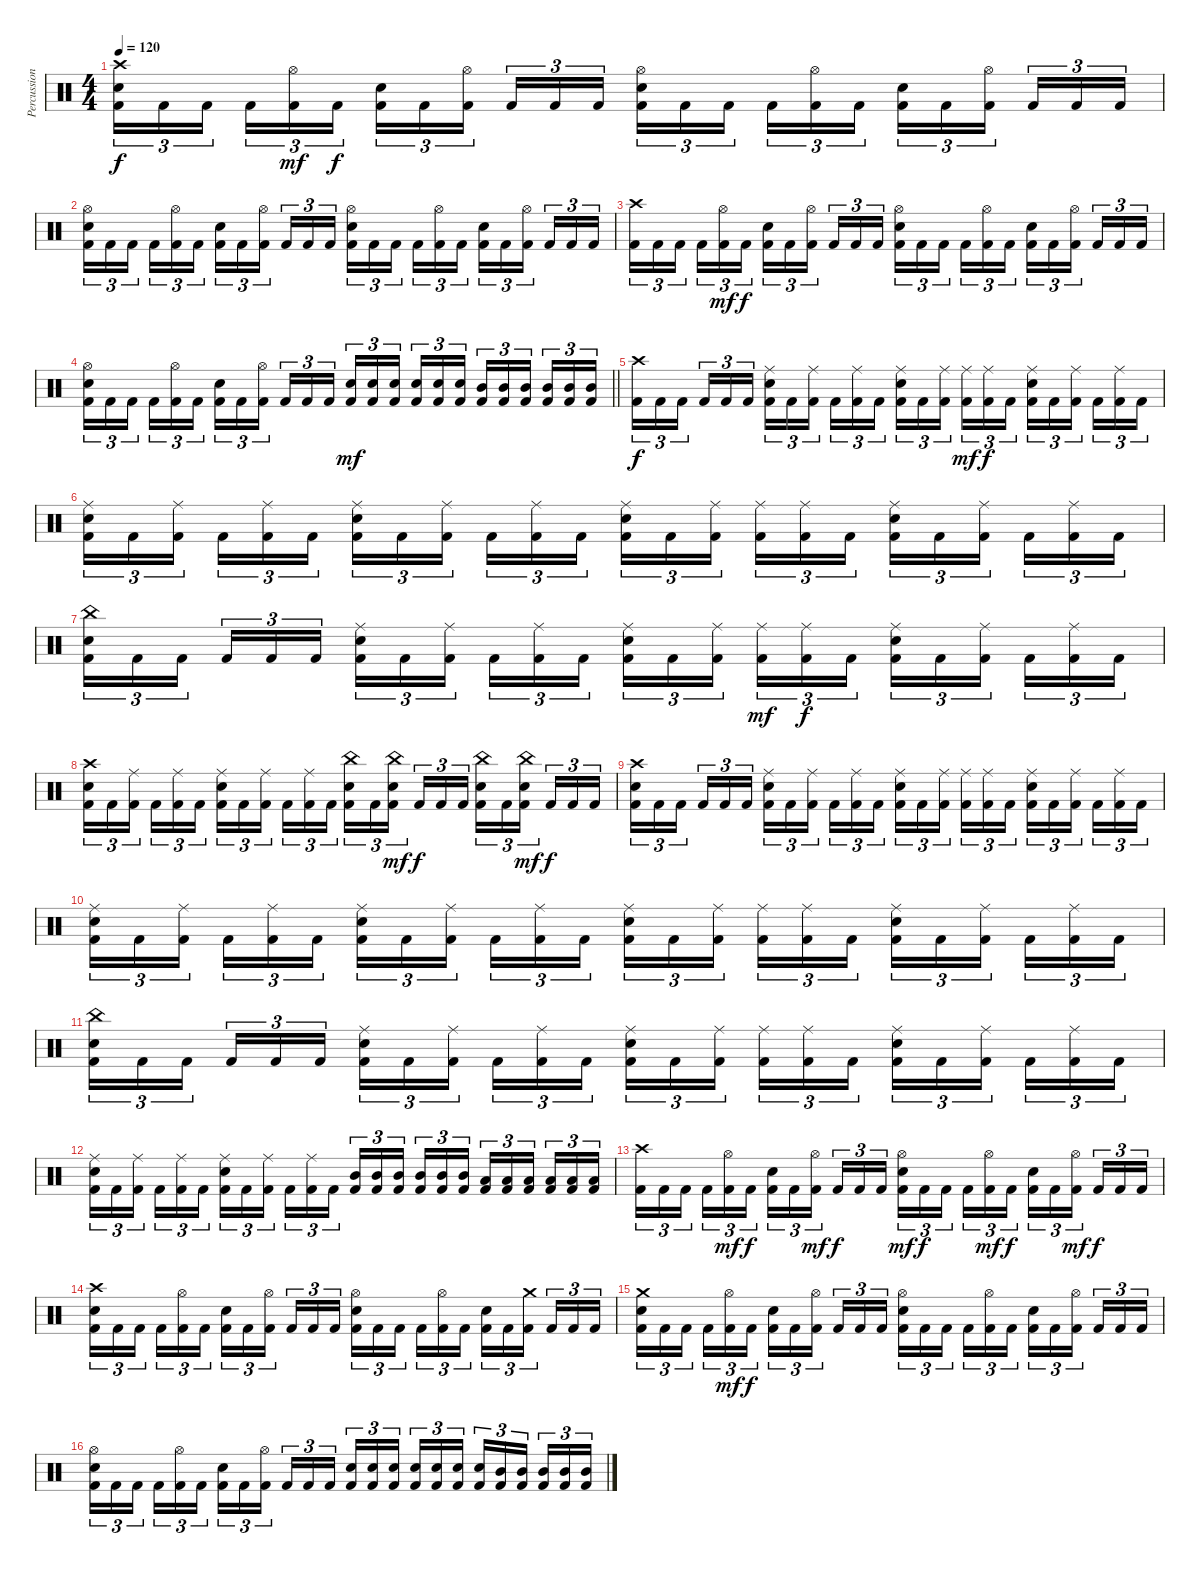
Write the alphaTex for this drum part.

\track ("Percussion" "Percussion") {instrument percussion}
\staff {score}
\articulation defaults
\ts (4 4)
\tempo 120
\clef neutral
\ks c
("Crash high (hit)" "Snare (hit) 2" "Kick (hit) 2").16{tu (3 2) dy f} "Kick (hit) 2".16{tu (3 2)} "Kick (hit) 2".16{tu (3 2) beam splitsecondary} "Kick (hit) 2".16{tu (3 2)} ("Hi-Hat (open)" "Kick (hit) 2").16{tu (3 2) dy mf} "Kick (hit) 2".16{tu (3 2) dy f} ("Snare (hit) 2" "Kick (hit) 2").16{tu (3 2)} "Kick (hit) 2".16{tu (3 2)} ("Hi-Hat (open)" "Kick (hit) 2").16{tu (3 2) beam splitsecondary} "Kick (hit) 2".16{tu (3 2)} "Kick (hit) 2".16{tu (3 2)} "Kick (hit) 2".16{tu (3 2)} ("Hi-Hat (open)" "Snare (hit) 2" "Kick (hit) 2").16{tu (3 2)} "Kick (hit) 2".16{tu (3 2)} "Kick (hit) 2".16{tu (3 2) beam splitsecondary} "Kick (hit) 2".16{tu (3 2)} ("Hi-Hat (open)" "Kick (hit) 2").16{tu (3 2)} "Kick (hit) 2".16{tu (3 2)} ("Snare (hit) 2" "Kick (hit) 2").16{tu (3 2)} "Kick (hit) 2".16{tu (3 2)} ("Hi-Hat (open)" "Kick (hit) 2").16{tu (3 2) beam splitsecondary} "Kick (hit) 2".16{tu (3 2)} "Kick (hit) 2".16{tu (3 2)} "Kick (hit) 2".16{tu (3 2)} |
("Hi-Hat (open)" "Snare (hit) 2" "Kick (hit) 2").16{tu (3 2)} "Kick (hit) 2".16{tu (3 2)} "Kick (hit) 2".16{tu (3 2) beam splitsecondary} "Kick (hit) 2".16{tu (3 2)} ("Hi-Hat (open)" "Kick (hit) 2").16{tu (3 2)} "Kick (hit) 2".16{tu (3 2)} ("Snare (hit) 2" "Kick (hit) 2").16{tu (3 2)} "Kick (hit) 2".16{tu (3 2)} ("Hi-Hat (open)" "Kick (hit) 2").16{tu (3 2) beam splitsecondary} "Kick (hit) 2".16{tu (3 2)} "Kick (hit) 2".16{tu (3 2)} "Kick (hit) 2".16{tu (3 2)} ("Hi-Hat (open)" "Snare (hit) 2" "Kick (hit) 2").16{tu (3 2)} "Kick (hit) 2".16{tu (3 2)} "Kick (hit) 2".16{tu (3 2) beam splitsecondary} "Kick (hit) 2".16{tu (3 2)} ("Hi-Hat (open)" "Kick (hit) 2").16{tu (3 2)} "Kick (hit) 2".16{tu (3 2)} ("Snare (hit) 2" "Kick (hit) 2").16{tu (3 2)} "Kick (hit) 2".16{tu (3 2)} ("Hi-Hat (open)" "Kick (hit) 2").16{tu (3 2) beam splitsecondary} "Kick (hit) 2".16{tu (3 2)} "Kick (hit) 2".16{tu (3 2)} "Kick (hit) 2".16{tu (3 2)} |
("Crash high (hit)" "Kick (hit) 2").16{tu (3 2)} "Kick (hit) 2".16{tu (3 2)} "Kick (hit) 2".16{tu (3 2) beam splitsecondary} "Kick (hit) 2".16{tu (3 2)} ("Hi-Hat (open)" "Kick (hit) 2").16{tu (3 2) dy mf} "Kick (hit) 2".16{tu (3 2) dy f} ("Snare (hit) 2" "Kick (hit) 2").16{tu (3 2)} "Kick (hit) 2".16{tu (3 2)} ("Hi-Hat (open)" "Kick (hit) 2").16{tu (3 2) beam splitsecondary} "Kick (hit) 2".16{tu (3 2)} "Kick (hit) 2".16{tu (3 2)} "Kick (hit) 2".16{tu (3 2)} ("Hi-Hat (open)" "Snare (hit) 2" "Kick (hit) 2").16{tu (3 2)} "Kick (hit) 2".16{tu (3 2)} "Kick (hit) 2".16{tu (3 2) beam splitsecondary} "Kick (hit) 2".16{tu (3 2)} ("Hi-Hat (open)" "Kick (hit) 2").16{tu (3 2)} "Kick (hit) 2".16{tu (3 2)} ("Snare (hit) 2" "Kick (hit) 2").16{tu (3 2)} "Kick (hit) 2".16{tu (3 2)} ("Hi-Hat (open)" "Kick (hit) 2").16{tu (3 2) beam splitsecondary} "Kick (hit) 2".16{tu (3 2)} "Kick (hit) 2".16{tu (3 2)} "Kick (hit) 2".16{tu (3 2)} |
\barLineRight lightlight
("Hi-Hat (open)" "Snare (hit) 2" "Kick (hit) 2").16{tu (3 2)} "Kick (hit) 2".16{tu (3 2)} "Kick (hit) 2".16{tu (3 2) beam splitsecondary} "Kick (hit) 2".16{tu (3 2)} ("Hi-Hat (open)" "Kick (hit) 2").16{tu (3 2)} "Kick (hit) 2".16{tu (3 2)} ("Snare (hit) 2" "Kick (hit) 2").16{tu (3 2)} "Kick (hit) 2".16{tu (3 2)} ("Hi-Hat (open)" "Kick (hit) 2").16{tu (3 2) beam splitsecondary} "Kick (hit) 2".16{tu (3 2)} "Kick (hit) 2".16{tu (3 2)} "Kick (hit) 2".16{tu (3 2)} ("Snare (hit) 2" "Kick (hit) 2").16{tu (3 2) dy mf} ("Snare (hit) 2" "Kick (hit) 2").16{tu (3 2)} ("Snare (hit) 2" "Kick (hit) 2").16{tu (3 2) beam splitsecondary} ("Snare (hit) 2" "Kick (hit) 2").16{tu (3 2)} ("Snare (hit) 2" "Kick (hit) 2").16{tu (3 2)} ("Snare (hit) 2" "Kick (hit) 2").16{tu (3 2)} ("Mid Tom (hit)" "Kick (hit) 2").16{tu (3 2)} ("Mid Tom (hit)" "Kick (hit) 2").16{tu (3 2)} ("Mid Tom (hit)" "Kick (hit) 2").16{tu (3 2) beam splitsecondary} ("Mid Tom (hit)" "Kick (hit) 2").16{tu (3 2)} ("Mid Tom (hit)" "Kick (hit) 2").16{tu (3 2)} ("Mid Tom (hit)" "Kick (hit) 2").16{tu (3 2)} |
("Crash high (hit)" "Kick (hit) 2").16{tu (3 2) dy f} "Kick (hit) 2".16{tu (3 2)} "Kick (hit) 2".16{tu (3 2) beam splitsecondary} "Kick (hit) 2".16{tu (3 2)} "Kick (hit) 2".16{tu (3 2)} "Kick (hit) 2".16{tu (3 2)} ("Ride (middle)" "Snare (hit) 2" "Kick (hit) 2").16{tu (3 2)} "Kick (hit) 2".16{tu (3 2)} ("Ride (middle)" "Kick (hit) 2").16{tu (3 2) beam splitsecondary} "Kick (hit) 2".16{tu (3 2)} ("Ride (middle)" "Kick (hit) 2").16{tu (3 2)} "Kick (hit) 2".16{tu (3 2)} ("Ride (middle)" "Snare (hit) 2" "Kick (hit) 2").16{tu (3 2)} "Kick (hit) 2".16{tu (3 2)} ("Ride (middle)" "Kick (hit) 2").16{tu (3 2) beam splitsecondary} ("Ride (middle)" "Kick (hit) 2").16{tu (3 2) dy mf} ("Ride (middle)" "Kick (hit) 2").16{tu (3 2) dy f} "Kick (hit) 2".16{tu (3 2)} ("Ride (middle)" "Snare (hit) 2" "Kick (hit) 2").16{tu (3 2)} "Kick (hit) 2".16{tu (3 2)} ("Ride (middle)" "Kick (hit) 2").16{tu (3 2) beam splitsecondary} "Kick (hit) 2".16{tu (3 2)} ("Ride (middle)" "Kick (hit) 2").16{tu (3 2)} "Kick (hit) 2".16{tu (3 2)} |
("Ride (middle)" "Snare (hit) 2" "Kick (hit) 2").16{tu (3 2)} "Kick (hit) 2".16{tu (3 2)} ("Ride (middle)" "Kick (hit) 2").16{tu (3 2) beam splitsecondary} "Kick (hit) 2".16{tu (3 2)} ("Ride (middle)" "Kick (hit) 2").16{tu (3 2)} "Kick (hit) 2".16{tu (3 2)} ("Ride (middle)" "Snare (hit) 2" "Kick (hit) 2").16{tu (3 2)} "Kick (hit) 2".16{tu (3 2)} ("Ride (middle)" "Kick (hit) 2").16{tu (3 2) beam splitsecondary} "Kick (hit) 2".16{tu (3 2)} ("Ride (middle)" "Kick (hit) 2").16{tu (3 2)} "Kick (hit) 2".16{tu (3 2)} ("Ride (middle)" "Snare (hit) 2" "Kick (hit) 2").16{tu (3 2)} "Kick (hit) 2".16{tu (3 2)} ("Ride (middle)" "Kick (hit) 2").16{tu (3 2) beam splitsecondary} ("Ride (middle)" "Kick (hit) 2").16{tu (3 2)} ("Ride (middle)" "Kick (hit) 2").16{tu (3 2)} "Kick (hit) 2".16{tu (3 2)} ("Ride (middle)" "Snare (hit) 2" "Kick (hit) 2").16{tu (3 2)} "Kick (hit) 2".16{tu (3 2)} ("Ride (middle)" "Kick (hit) 2").16{tu (3 2) beam splitsecondary} "Kick (hit) 2".16{tu (3 2)} ("Ride (middle)" "Kick (hit) 2").16{tu (3 2)} "Kick (hit) 2".16{tu (3 2)} |
("China (hit)" "Snare (hit) 2" "Kick (hit) 2").16{tu (3 2)} "Kick (hit) 2".16{tu (3 2)} "Kick (hit) 2".16{tu (3 2) beam splitsecondary} "Kick (hit) 2".16{tu (3 2)} "Kick (hit) 2".16{tu (3 2)} "Kick (hit) 2".16{tu (3 2)} ("Ride (middle)" "Snare (hit) 2" "Kick (hit) 2").16{tu (3 2)} "Kick (hit) 2".16{tu (3 2)} ("Ride (middle)" "Kick (hit) 2").16{tu (3 2) beam splitsecondary} "Kick (hit) 2".16{tu (3 2)} ("Ride (middle)" "Kick (hit) 2").16{tu (3 2)} "Kick (hit) 2".16{tu (3 2)} ("Ride (middle)" "Snare (hit) 2" "Kick (hit) 2").16{tu (3 2)} "Kick (hit) 2".16{tu (3 2)} ("Ride (middle)" "Kick (hit) 2").16{tu (3 2) beam splitsecondary} ("Ride (middle)" "Kick (hit) 2").16{tu (3 2) dy mf} ("Ride (middle)" "Kick (hit) 2").16{tu (3 2) dy f} "Kick (hit) 2".16{tu (3 2)} ("Ride (middle)" "Snare (hit) 2" "Kick (hit) 2").16{tu (3 2)} "Kick (hit) 2".16{tu (3 2)} ("Ride (middle)" "Kick (hit) 2").16{tu (3 2) beam splitsecondary} "Kick (hit) 2".16{tu (3 2)} ("Ride (middle)" "Kick (hit) 2").16{tu (3 2)} "Kick (hit) 2".16{tu (3 2)} |
("Crash high (hit)" "Snare (hit) 2" "Kick (hit) 2").16{tu (3 2)} "Kick (hit) 2".16{tu (3 2)} ("Ride (middle)" "Kick (hit) 2").16{tu (3 2) beam splitsecondary} "Kick (hit) 2".16{tu (3 2)} ("Ride (middle)" "Kick (hit) 2").16{tu (3 2)} "Kick (hit) 2".16{tu (3 2)} ("Ride (middle)" "Snare (hit) 2" "Kick (hit) 2").16{tu (3 2)} "Kick (hit) 2".16{tu (3 2)} ("Ride (middle)" "Kick (hit) 2").16{tu (3 2) beam splitsecondary} "Kick (hit) 2".16{tu (3 2)} ("Ride (middle)" "Kick (hit) 2").16{tu (3 2)} "Kick (hit) 2".16{tu (3 2)} ("China (hit)" "Snare (hit) 2" "Kick (hit) 2").16{tu (3 2)} "Kick (hit) 2".16{tu (3 2)} ("China (hit)" "Snare (hit) 2" "Kick (hit) 2").16{tu (3 2) dy mf beam splitsecondary} "Kick (hit) 2".16{tu (3 2) dy f} "Kick (hit) 2".16{tu (3 2)} "Kick (hit) 2".16{tu (3 2)} ("China (hit)" "Snare (hit) 2" "Kick (hit) 2").16{tu (3 2)} "Kick (hit) 2".16{tu (3 2)} ("China (hit)" "Snare (hit) 2" "Kick (hit) 2").16{tu (3 2) dy mf beam splitsecondary} "Kick (hit) 2".16{tu (3 2) dy f} "Kick (hit) 2".16{tu (3 2)} "Kick (hit) 2".16{tu (3 2)} |
("Crash high (hit)" "Snare (hit) 2" "Kick (hit) 2").16{tu (3 2)} "Kick (hit) 2".16{tu (3 2)} "Kick (hit) 2".16{tu (3 2) beam splitsecondary} "Kick (hit) 2".16{tu (3 2)} "Kick (hit) 2".16{tu (3 2)} "Kick (hit) 2".16{tu (3 2)} ("Ride (middle)" "Snare (hit) 2" "Kick (hit) 2").16{tu (3 2)} "Kick (hit) 2".16{tu (3 2)} ("Ride (middle)" "Kick (hit) 2").16{tu (3 2) beam splitsecondary} "Kick (hit) 2".16{tu (3 2)} ("Ride (middle)" "Kick (hit) 2").16{tu (3 2)} "Kick (hit) 2".16{tu (3 2)} ("Ride (middle)" "Snare (hit) 2" "Kick (hit) 2").16{tu (3 2)} "Kick (hit) 2".16{tu (3 2)} ("Ride (middle)" "Kick (hit) 2").16{tu (3 2) beam splitsecondary} ("Ride (middle)" "Kick (hit) 2").16{tu (3 2)} ("Ride (middle)" "Kick (hit) 2").16{tu (3 2)} "Kick (hit) 2".16{tu (3 2)} ("Ride (middle)" "Snare (hit) 2" "Kick (hit) 2").16{tu (3 2)} "Kick (hit) 2".16{tu (3 2)} ("Ride (middle)" "Kick (hit) 2").16{tu (3 2) beam splitsecondary} "Kick (hit) 2".16{tu (3 2)} ("Ride (middle)" "Kick (hit) 2").16{tu (3 2)} "Kick (hit) 2".16{tu (3 2)} |
("Ride (middle)" "Snare (hit) 2" "Kick (hit) 2").16{tu (3 2)} "Kick (hit) 2".16{tu (3 2)} ("Ride (middle)" "Kick (hit) 2").16{tu (3 2) beam splitsecondary} "Kick (hit) 2".16{tu (3 2)} ("Ride (middle)" "Kick (hit) 2").16{tu (3 2)} "Kick (hit) 2".16{tu (3 2)} ("Ride (middle)" "Snare (hit) 2" "Kick (hit) 2").16{tu (3 2)} "Kick (hit) 2".16{tu (3 2)} ("Ride (middle)" "Kick (hit) 2").16{tu (3 2) beam splitsecondary} "Kick (hit) 2".16{tu (3 2)} ("Ride (middle)" "Kick (hit) 2").16{tu (3 2)} "Kick (hit) 2".16{tu (3 2)} ("Ride (middle)" "Snare (hit) 2" "Kick (hit) 2").16{tu (3 2)} "Kick (hit) 2".16{tu (3 2)} ("Ride (middle)" "Kick (hit) 2").16{tu (3 2) beam splitsecondary} ("Ride (middle)" "Kick (hit) 2").16{tu (3 2)} ("Ride (middle)" "Kick (hit) 2").16{tu (3 2)} "Kick (hit) 2".16{tu (3 2)} ("Ride (middle)" "Snare (hit) 2" "Kick (hit) 2").16{tu (3 2)} "Kick (hit) 2".16{tu (3 2)} ("Ride (middle)" "Kick (hit) 2").16{tu (3 2) beam splitsecondary} "Kick (hit) 2".16{tu (3 2)} ("Ride (middle)" "Kick (hit) 2").16{tu (3 2)} "Kick (hit) 2".16{tu (3 2)} |
("China (hit)" "Snare (hit) 2" "Kick (hit) 2").16{tu (3 2)} "Kick (hit) 2".16{tu (3 2)} "Kick (hit) 2".16{tu (3 2) beam splitsecondary} "Kick (hit) 2".16{tu (3 2)} "Kick (hit) 2".16{tu (3 2)} "Kick (hit) 2".16{tu (3 2)} ("Ride (middle)" "Snare (hit) 2" "Kick (hit) 2").16{tu (3 2)} "Kick (hit) 2".16{tu (3 2)} ("Ride (middle)" "Kick (hit) 2").16{tu (3 2) beam splitsecondary} "Kick (hit) 2".16{tu (3 2)} ("Ride (middle)" "Kick (hit) 2").16{tu (3 2)} "Kick (hit) 2".16{tu (3 2)} ("Ride (middle)" "Snare (hit) 2" "Kick (hit) 2").16{tu (3 2)} "Kick (hit) 2".16{tu (3 2)} ("Ride (middle)" "Kick (hit) 2").16{tu (3 2) beam splitsecondary} ("Ride (middle)" "Kick (hit) 2").16{tu (3 2)} ("Ride (middle)" "Kick (hit) 2").16{tu (3 2)} "Kick (hit) 2".16{tu (3 2)} ("Ride (middle)" "Snare (hit) 2" "Kick (hit) 2").16{tu (3 2)} "Kick (hit) 2".16{tu (3 2)} ("Ride (middle)" "Kick (hit) 2").16{tu (3 2) beam splitsecondary} "Kick (hit) 2".16{tu (3 2)} ("Ride (middle)" "Kick (hit) 2").16{tu (3 2)} "Kick (hit) 2".16{tu (3 2)} |
("Ride (middle)" "Snare (hit) 2" "Kick (hit) 2").16{tu (3 2)} "Kick (hit) 2".16{tu (3 2)} ("Ride (middle)" "Kick (hit) 2").16{tu (3 2) beam splitsecondary} "Kick (hit) 2".16{tu (3 2)} ("Ride (middle)" "Kick (hit) 2").16{tu (3 2)} "Kick (hit) 2".16{tu (3 2)} ("Ride (middle)" "Snare (hit) 2" "Kick (hit) 2").16{tu (3 2)} "Kick (hit) 2".16{tu (3 2)} ("Ride (middle)" "Kick (hit) 2").16{tu (3 2) beam splitsecondary} "Kick (hit) 2".16{tu (3 2)} ("Ride (middle)" "Kick (hit) 2").16{tu (3 2)} "Kick (hit) 2".16{tu (3 2)} ("Mid Tom (hit)" "Kick (hit) 2").16{tu (3 2)} ("Mid Tom (hit)" "Kick (hit) 2").16{tu (3 2)} ("Mid Tom (hit)" "Kick (hit) 2").16{tu (3 2) beam splitsecondary} ("Mid Tom (hit)" "Kick (hit) 2").16{tu (3 2)} ("Mid Tom (hit)" "Kick (hit) 2").16{tu (3 2)} ("Mid Tom (hit)" "Kick (hit) 2").16{tu (3 2)} ("Low Tom (hit)" "Kick (hit) 2").16{tu (3 2)} ("Low Tom (hit)" "Kick (hit) 2").16{tu (3 2)} ("Low Tom (hit)" "Kick (hit) 2").16{tu (3 2) beam splitsecondary} ("Low Tom (hit)" "Kick (hit) 2").16{tu (3 2)} ("Low Tom (hit)" "Kick (hit) 2").16{tu (3 2)} ("Low Tom (hit)" "Kick (hit) 2").16{tu (3 2)} |
("Crash high (hit)" "Kick (hit) 2").16{tu (3 2)} "Kick (hit) 2".16{tu (3 2)} "Kick (hit) 2".16{tu (3 2) beam splitsecondary} "Kick (hit) 2".16{tu (3 2)} ("Hi-Hat (open)" "Kick (hit) 2").16{tu (3 2) dy mf} "Kick (hit) 2".16{tu (3 2) dy f} ("Snare (hit) 2" "Kick (hit) 2").16{tu (3 2)} "Kick (hit) 2".16{tu (3 2)} ("Hi-Hat (open)" "Kick (hit) 2").16{tu (3 2) dy mf beam splitsecondary} "Kick (hit) 2".16{tu (3 2) dy f} "Kick (hit) 2".16{tu (3 2)} "Kick (hit) 2".16{tu (3 2)} ("Hi-Hat (open)" "Snare (hit) 2" "Kick (hit) 2").16{tu (3 2) dy mf} "Kick (hit) 2".16{tu (3 2) dy f} "Kick (hit) 2".16{tu (3 2) beam splitsecondary} "Kick (hit) 2".16{tu (3 2)} ("Hi-Hat (open)" "Kick (hit) 2").16{tu (3 2) dy mf} "Kick (hit) 2".16{tu (3 2) dy f} ("Snare (hit) 2" "Kick (hit) 2").16{tu (3 2)} "Kick (hit) 2".16{tu (3 2)} ("Hi-Hat (open)" "Kick (hit) 2").16{tu (3 2) dy mf beam splitsecondary} "Kick (hit) 2".16{tu (3 2) dy f} "Kick (hit) 2".16{tu (3 2)} "Kick (hit) 2".16{tu (3 2)} |
("Crash high (hit)" "Snare (hit) 2" "Kick (hit) 2").16{tu (3 2)} "Kick (hit) 2".16{tu (3 2)} "Kick (hit) 2".16{tu (3 2) beam splitsecondary} "Kick (hit) 2".16{tu (3 2)} ("Hi-Hat (open)" "Kick (hit) 2").16{tu (3 2)} "Kick (hit) 2".16{tu (3 2)} ("Snare (hit) 2" "Kick (hit) 2").16{tu (3 2)} "Kick (hit) 2".16{tu (3 2)} ("Hi-Hat (open)" "Kick (hit) 2").16{tu (3 2) beam splitsecondary} "Kick (hit) 2".16{tu (3 2)} "Kick (hit) 2".16{tu (3 2)} "Kick (hit) 2".16{tu (3 2)} ("Hi-Hat (open)" "Snare (hit) 2" "Kick (hit) 2").16{tu (3 2)} "Kick (hit) 2".16{tu (3 2)} "Kick (hit) 2".16{tu (3 2) beam splitsecondary} "Kick (hit) 2".16{tu (3 2)} ("Hi-Hat (open)" "Kick (hit) 2").16{tu (3 2)} "Kick (hit) 2".16{tu (3 2)} ("Snare (hit) 2" "Kick (hit) 2").16{tu (3 2)} "Kick (hit) 2".16{tu (3 2)} ("Crash medium (hit)" "Kick (hit) 2").16{tu (3 2) beam splitsecondary} "Kick (hit) 2".16{tu (3 2)} "Kick (hit) 2".16{tu (3 2)} "Kick (hit) 2".16{tu (3 2)} |
("Crash medium (hit)" "Snare (hit) 2" "Kick (hit) 2").16{tu (3 2)} "Kick (hit) 2".16{tu (3 2)} "Kick (hit) 2".16{tu (3 2) beam splitsecondary} "Kick (hit) 2".16{tu (3 2)} ("Hi-Hat (open)" "Kick (hit) 2").16{tu (3 2) dy mf} "Kick (hit) 2".16{tu (3 2) dy f} ("Snare (hit) 2" "Kick (hit) 2").16{tu (3 2)} "Kick (hit) 2".16{tu (3 2)} ("Hi-Hat (open)" "Kick (hit) 2").16{tu (3 2) beam splitsecondary} "Kick (hit) 2".16{tu (3 2)} "Kick (hit) 2".16{tu (3 2)} "Kick (hit) 2".16{tu (3 2)} ("Hi-Hat (open)" "Snare (hit) 2" "Kick (hit) 2").16{tu (3 2)} "Kick (hit) 2".16{tu (3 2)} "Kick (hit) 2".16{tu (3 2) beam splitsecondary} "Kick (hit) 2".16{tu (3 2)} ("Hi-Hat (open)" "Kick (hit) 2").16{tu (3 2)} "Kick (hit) 2".16{tu (3 2)} ("Snare (hit) 2" "Kick (hit) 2").16{tu (3 2)} "Kick (hit) 2".16{tu (3 2)} ("Hi-Hat (open)" "Kick (hit) 2").16{tu (3 2) beam splitsecondary} "Kick (hit) 2".16{tu (3 2)} "Kick (hit) 2".16{tu (3 2)} "Kick (hit) 2".16{tu (3 2)} |
("Hi-Hat (open)" "Snare (hit) 2" "Kick (hit) 2").16{tu (3 2)} "Kick (hit) 2".16{tu (3 2)} "Kick (hit) 2".16{tu (3 2) beam splitsecondary} "Kick (hit) 2".16{tu (3 2)} ("Hi-Hat (open)" "Kick (hit) 2").16{tu (3 2)} "Kick (hit) 2".16{tu (3 2)} ("Snare (hit) 2" "Kick (hit) 2").16{tu (3 2)} "Kick (hit) 2".16{tu (3 2)} ("Hi-Hat (open)" "Kick (hit) 2").16{tu (3 2) beam splitsecondary} "Kick (hit) 2".16{tu (3 2)} "Kick (hit) 2".16{tu (3 2)} "Kick (hit) 2".16{tu (3 2)} ("Snare (hit) 2" "Kick (hit) 2").16{tu (3 2)} ("Snare (hit) 2" "Kick (hit) 2").16{tu (3 2)} ("Snare (hit) 2" "Kick (hit) 2").16{tu (3 2) beam splitsecondary} ("Snare (hit) 2" "Kick (hit) 2").16{tu (3 2)} ("Snare (hit) 2" "Kick (hit) 2").16{tu (3 2)} ("Snare (hit) 2" "Kick (hit) 2").16{tu (3 2)} ("Snare (hit) 2" "Kick (hit) 2").16{tu (3 2)} ("Mid Tom (hit)" "Kick (hit) 2").16{tu (3 2)} ("Mid Tom (hit)" "Kick (hit) 2").16{tu (3 2) beam splitsecondary} ("Mid Tom (hit)" "Kick (hit) 2").16{tu (3 2)} ("Mid Tom (hit)" "Kick (hit) 2").16{tu (3 2)} ("Mid Tom (hit)" "Kick (hit) 2").16{tu (3 2)}
